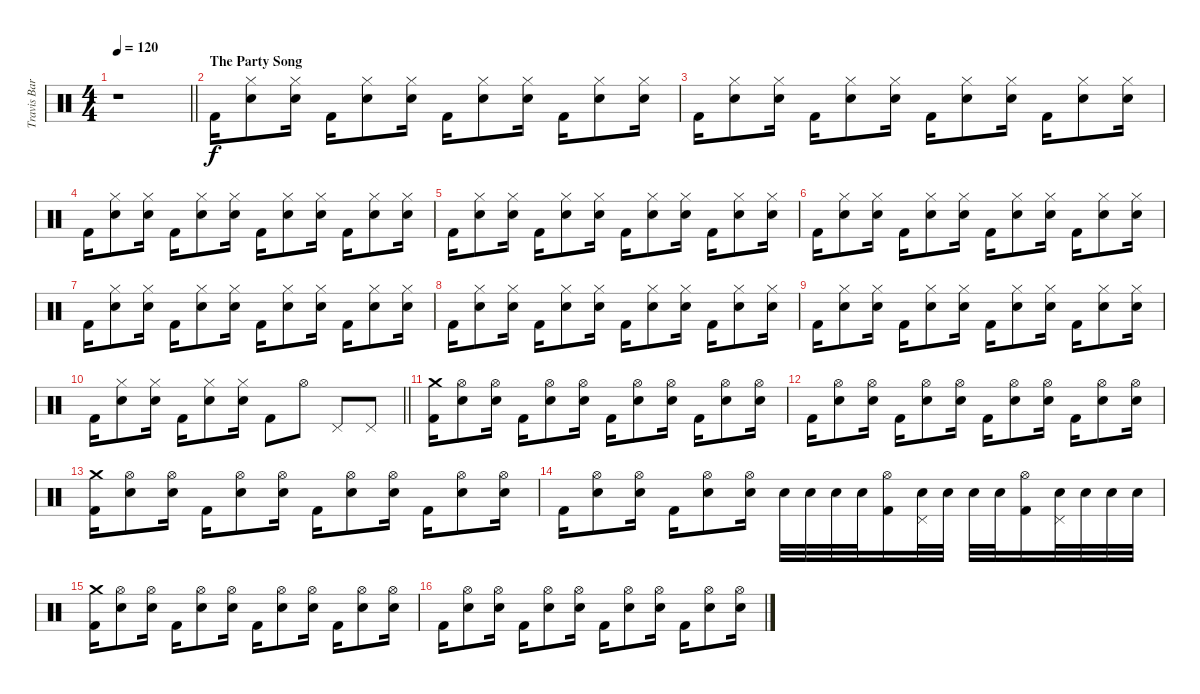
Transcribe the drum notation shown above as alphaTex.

\track ("Travis Barker" "Travis Bar") {instrument percussion}
\staff {score}
\articulation defaults
\ts (4 4)
\tempo 120
\clef neutral
\barLineRight lightlight
\ks c
r.1{dy f} |
\section ("" "The Party Song")
"Kick (hit) 2".16 ("Hi-Hat (closed)" "Electric Snare (hit)").8 ("Hi-Hat (closed)" "Electric Snare (hit)").16 "Kick (hit) 2".16 ("Hi-Hat (closed)" "Electric Snare (hit)").8 ("Hi-Hat (closed)" "Electric Snare (hit)").16 "Kick (hit) 2".16 ("Hi-Hat (closed)" "Electric Snare (hit)").8 ("Hi-Hat (closed)" "Electric Snare (hit)").16 "Kick (hit) 2".16 ("Hi-Hat (closed)" "Electric Snare (hit)").8 ("Hi-Hat (closed)" "Electric Snare (hit)").16 |
"Kick (hit) 2".16 ("Hi-Hat (closed)" "Electric Snare (hit)").8 ("Hi-Hat (closed)" "Electric Snare (hit)").16 "Kick (hit) 2".16 ("Hi-Hat (closed)" "Electric Snare (hit)").8 ("Hi-Hat (closed)" "Electric Snare (hit)").16 "Kick (hit) 2".16 ("Hi-Hat (closed)" "Electric Snare (hit)").8 ("Hi-Hat (closed)" "Electric Snare (hit)").16 "Kick (hit) 2".16 ("Hi-Hat (closed)" "Electric Snare (hit)").8 ("Hi-Hat (closed)" "Electric Snare (hit)").16 |
"Kick (hit) 2".16 ("Hi-Hat (closed)" "Electric Snare (hit)").8 ("Hi-Hat (closed)" "Electric Snare (hit)").16 "Kick (hit) 2".16 ("Hi-Hat (closed)" "Electric Snare (hit)").8 ("Hi-Hat (closed)" "Electric Snare (hit)").16 "Kick (hit) 2".16 ("Hi-Hat (closed)" "Electric Snare (hit)").8 ("Hi-Hat (closed)" "Electric Snare (hit)").16 "Kick (hit) 2".16 ("Hi-Hat (closed)" "Electric Snare (hit)").8 ("Hi-Hat (closed)" "Electric Snare (hit)").16 |
"Kick (hit) 2".16 ("Hi-Hat (closed)" "Electric Snare (hit)").8 ("Hi-Hat (closed)" "Electric Snare (hit)").16 "Kick (hit) 2".16 ("Hi-Hat (closed)" "Electric Snare (hit)").8 ("Hi-Hat (closed)" "Electric Snare (hit)").16 "Kick (hit) 2".16 ("Hi-Hat (closed)" "Electric Snare (hit)").8 ("Hi-Hat (closed)" "Electric Snare (hit)").16 "Kick (hit) 2".16 ("Hi-Hat (closed)" "Electric Snare (hit)").8 ("Hi-Hat (closed)" "Electric Snare (hit)").16 |
"Kick (hit) 2".16 ("Hi-Hat (closed)" "Electric Snare (hit)").8 ("Hi-Hat (closed)" "Electric Snare (hit)").16 "Kick (hit) 2".16 ("Hi-Hat (closed)" "Electric Snare (hit)").8 ("Hi-Hat (closed)" "Electric Snare (hit)").16 "Kick (hit) 2".16 ("Hi-Hat (closed)" "Electric Snare (hit)").8 ("Hi-Hat (closed)" "Electric Snare (hit)").16 "Kick (hit) 2".16 ("Hi-Hat (closed)" "Electric Snare (hit)").8 ("Hi-Hat (closed)" "Electric Snare (hit)").16 |
"Kick (hit) 2".16 ("Hi-Hat (closed)" "Electric Snare (hit)").8 ("Hi-Hat (closed)" "Electric Snare (hit)").16 "Kick (hit) 2".16 ("Hi-Hat (closed)" "Electric Snare (hit)").8 ("Hi-Hat (closed)" "Electric Snare (hit)").16 "Kick (hit) 2".16 ("Hi-Hat (closed)" "Electric Snare (hit)").8 ("Hi-Hat (closed)" "Electric Snare (hit)").16 "Kick (hit) 2".16 ("Hi-Hat (closed)" "Electric Snare (hit)").8 ("Hi-Hat (closed)" "Electric Snare (hit)").16 |
"Kick (hit) 2".16 ("Hi-Hat (closed)" "Electric Snare (hit)").8 ("Hi-Hat (closed)" "Electric Snare (hit)").16 "Kick (hit) 2".16 ("Hi-Hat (closed)" "Electric Snare (hit)").8 ("Hi-Hat (closed)" "Electric Snare (hit)").16 "Kick (hit) 2".16 ("Hi-Hat (closed)" "Electric Snare (hit)").8 ("Hi-Hat (closed)" "Electric Snare (hit)").16 "Kick (hit) 2".16 ("Hi-Hat (closed)" "Electric Snare (hit)").8 ("Hi-Hat (closed)" "Electric Snare (hit)").16 |
"Kick (hit) 2".16 ("Hi-Hat (closed)" "Electric Snare (hit)").8 ("Hi-Hat (closed)" "Electric Snare (hit)").16 "Kick (hit) 2".16 ("Hi-Hat (closed)" "Electric Snare (hit)").8 ("Hi-Hat (closed)" "Electric Snare (hit)").16 "Kick (hit) 2".16 ("Hi-Hat (closed)" "Electric Snare (hit)").8 ("Hi-Hat (closed)" "Electric Snare (hit)").16 "Kick (hit) 2".16 ("Hi-Hat (closed)" "Electric Snare (hit)").8 ("Hi-Hat (closed)" "Electric Snare (hit)").16 |
\barLineRight lightlight "Kick (hit) 2".16
("Hi-Hat (closed)" "Electric Snare (hit)").8 ("Hi-Hat (closed)" "Electric Snare (hit)").16 "Kick (hit) 2".16 ("Hi-Hat (closed)" "Electric Snare (hit)").8 ("Hi-Hat (closed)" "Electric Snare (hit)").16 "Kick (hit) 2".8 "Hi-Hat (open)".8 "Pedal Hi-Hat (hit)".8 "Pedal Hi-Hat (hit)".8 |
\section ("" "")
("Crash medium (hit)" "Kick (hit) 2").16 ("Hi-Hat (open)" "Electric Snare (hit)").8 ("Hi-Hat (open)" "Electric Snare (hit)").16 "Kick (hit) 2".16 ("Hi-Hat (open)" "Electric Snare (hit)").8 ("Hi-Hat (open)" "Electric Snare (hit)").16 "Kick (hit) 2".16 ("Hi-Hat (open)" "Electric Snare (hit)").8 ("Hi-Hat (open)" "Electric Snare (hit)").16 "Kick (hit) 2".16 ("Hi-Hat (open)" "Electric Snare (hit)").8 ("Hi-Hat (open)" "Electric Snare (hit)").16 |
"Kick (hit) 2".16 ("Hi-Hat (open)" "Electric Snare (hit)").8 ("Hi-Hat (open)" "Electric Snare (hit)").16 "Kick (hit) 2".16 ("Hi-Hat (open)" "Electric Snare (hit)").8 ("Hi-Hat (open)" "Electric Snare (hit)").16 "Kick (hit) 2".16 ("Hi-Hat (open)" "Electric Snare (hit)").8 ("Hi-Hat (open)" "Electric Snare (hit)").16 "Kick (hit) 2".16 ("Hi-Hat (open)" "Electric Snare (hit)").8 ("Hi-Hat (open)" "Electric Snare (hit)").16 |
("Crash medium (hit)" "Kick (hit) 2").16 ("Hi-Hat (open)" "Electric Snare (hit)").8 ("Hi-Hat (open)" "Electric Snare (hit)").16 "Kick (hit) 2".16 ("Hi-Hat (open)" "Electric Snare (hit)").8 ("Hi-Hat (open)" "Electric Snare (hit)").16 "Kick (hit) 2".16 ("Hi-Hat (open)" "Electric Snare (hit)").8 ("Hi-Hat (open)" "Electric Snare (hit)").16 "Kick (hit) 2".16 ("Hi-Hat (open)" "Electric Snare (hit)").8 ("Hi-Hat (open)" "Electric Snare (hit)").16 |
"Kick (hit) 2".16 ("Hi-Hat (open)" "Electric Snare (hit)").8 ("Hi-Hat (open)" "Electric Snare (hit)").16 "Kick (hit) 2".16 ("Hi-Hat (open)" "Electric Snare (hit)").8 ("Hi-Hat (open)" "Electric Snare (hit)").16 "Electric Snare (hit)".32 "Electric Snare (hit)".32 "Electric Snare (hit)".32 "Electric Snare (hit)".32 ("Hi-Hat (open)" "Kick (hit) 2").16 ("Pedal Hi-Hat (hit)" "Electric Snare (hit)").32 "Electric Snare (hit)".32 "Electric Snare (hit)".32 "Electric Snare (hit)".32 ("Hi-Hat (open)" "Kick (hit) 2").16 ("Pedal Hi-Hat (hit)" "Electric Snare (hit)").32 "Electric Snare (hit)".32 "Electric Snare (hit)".32 "Electric Snare (hit)".32 |
("Crash medium (hit)" "Kick (hit) 2").16 ("Hi-Hat (open)" "Electric Snare (hit)").8 ("Hi-Hat (open)" "Electric Snare (hit)").16 "Kick (hit) 2".16 ("Hi-Hat (open)" "Electric Snare (hit)").8 ("Hi-Hat (open)" "Electric Snare (hit)").16 "Kick (hit) 2".16 ("Hi-Hat (open)" "Electric Snare (hit)").8 ("Hi-Hat (open)" "Electric Snare (hit)").16 "Kick (hit) 2".16 ("Hi-Hat (open)" "Electric Snare (hit)").8 ("Hi-Hat (open)" "Electric Snare (hit)").16 |
"Kick (hit) 2".16 ("Hi-Hat (open)" "Electric Snare (hit)").8 ("Hi-Hat (open)" "Electric Snare (hit)").16 "Kick (hit) 2".16 ("Hi-Hat (open)" "Electric Snare (hit)").8 ("Hi-Hat (open)" "Electric Snare (hit)").16 "Kick (hit) 2".16 ("Hi-Hat (open)" "Electric Snare (hit)").8 ("Hi-Hat (open)" "Electric Snare (hit)").16 "Kick (hit) 2".16 ("Hi-Hat (open)" "Electric Snare (hit)").8 ("Hi-Hat (open)" "Electric Snare (hit)").16
